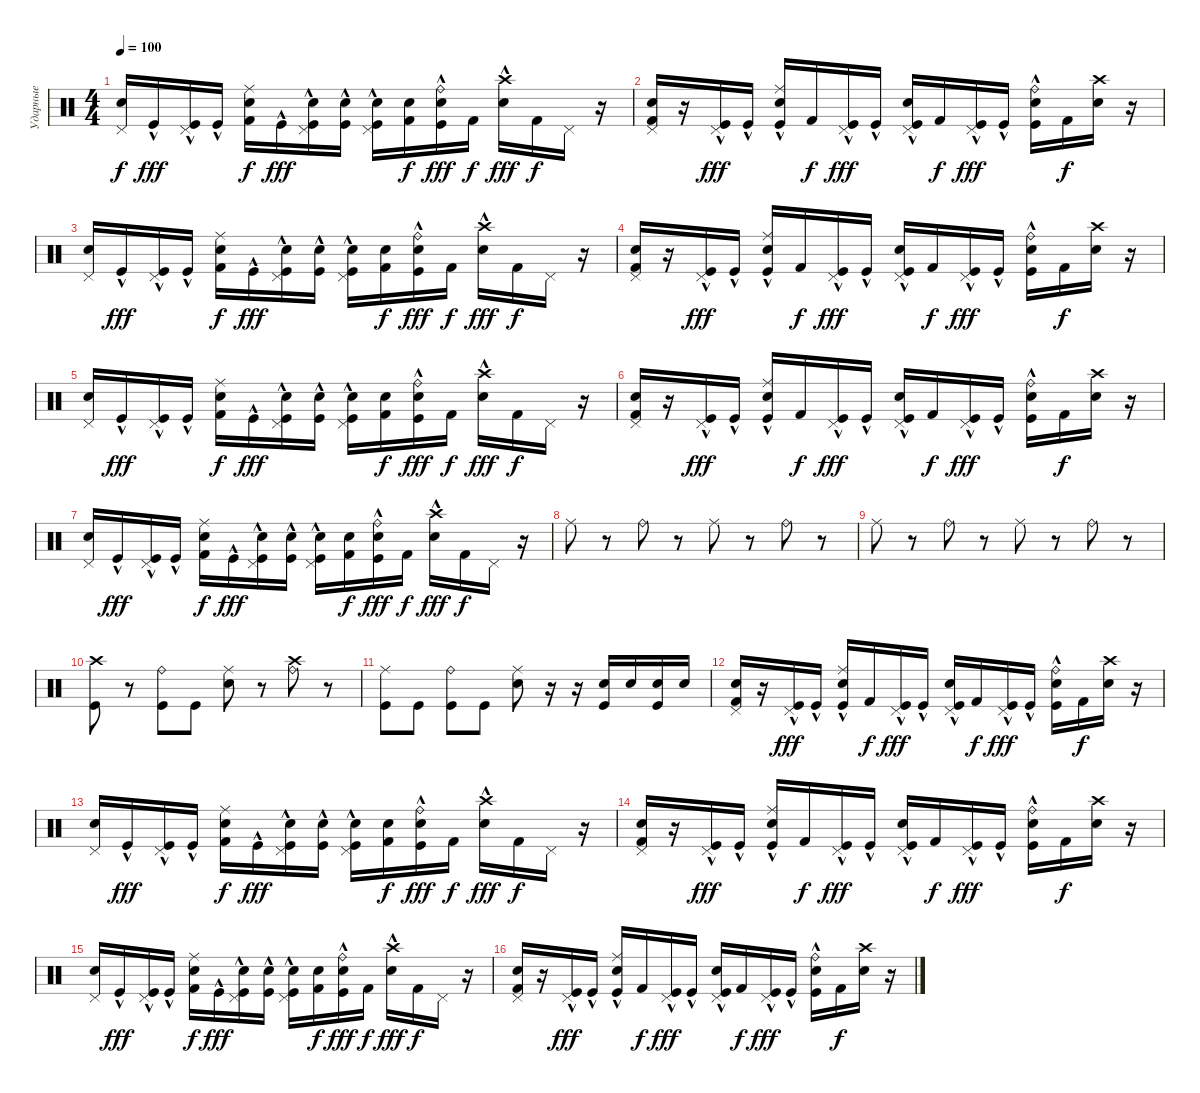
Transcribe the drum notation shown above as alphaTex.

\track ("Ударные" "Ударные") {instrument percussion}
\staff {score}
\articulation defaults
\ts (4 4)
\tempo 100
\clef neutral
\ks c
("Snare (hit) 2" "Pedal Hi-Hat (hit)").16{dy f} "Kick (hit)"{hac}.16{dy fff} ("Kick (hit)"{hac} "Pedal Hi-Hat (hit)").16 "Kick (hit)"{hac}.16 ("Electric Snare (hit)" "Kick (hit) 2" "Ride (middle)").16{dy f} "Kick (hit)"{hac}.16{dy fff} ("Snare (hit) 2" "Kick (hit)"{hac} "Pedal Hi-Hat (hit)").16 ("Snare (hit) 2" "Kick (hit)"{hac}).16 ("Snare (hit) 2" "Kick (hit)"{hac} "Pedal Hi-Hat (hit)").16 ("Snare (hit) 2" "Kick (hit) 2").16{dy f} ("Snare (hit) 2" "Kick (hit)"{hac} "Ride (bell)").16{dy fff} "Kick (hit) 2".16{dy f} ("Electric Snare (hit)"{hac} "Crash high (hit)").16{dy fff} "Kick (hit) 2".16{dy f} "Pedal Hi-Hat (hit)".16 r.16 |
("Snare (hit) 2" "Kick (hit) 2" "Pedal Hi-Hat (hit)").16 r.16 ("Kick (hit)"{hac} "Pedal Hi-Hat (hit)").16{dy fff} "Kick (hit)"{hac}.16 ("Electric Snare (hit)" "Kick (hit)"{hac} "Ride (middle)").16 "Kick (hit) 2".16{dy f} ("Kick (hit)"{hac} "Pedal Hi-Hat (hit)").16{dy fff} "Kick (hit)"{hac}.16 ("Snare (hit) 2" "Kick (hit)"{hac} "Pedal Hi-Hat (hit)").16 "Kick (hit) 2".16{dy f} ("Kick (hit)"{hac} "Pedal Hi-Hat (hit)").16{dy fff} "Kick (hit)"{hac}.16 ("Electric Snare (hit)" "Kick (hit)"{hac} "Ride (bell)").16 "Kick (hit) 2".16{dy f} ("Snare (hit) 2" "Crash high (hit)").16 r.16 |
("Snare (hit) 2" "Pedal Hi-Hat (hit)").16 "Kick (hit)"{hac}.16{dy fff} ("Kick (hit)"{hac} "Pedal Hi-Hat (hit)").16 "Kick (hit)"{hac}.16 ("Electric Snare (hit)" "Kick (hit) 2" "Ride (middle)").16{dy f} "Kick (hit)"{hac}.16{dy fff} ("Snare (hit) 2" "Kick (hit)"{hac} "Pedal Hi-Hat (hit)").16 ("Snare (hit) 2" "Kick (hit)"{hac}).16 ("Snare (hit) 2" "Kick (hit)"{hac} "Pedal Hi-Hat (hit)").16 ("Snare (hit) 2" "Kick (hit) 2").16{dy f} ("Snare (hit) 2" "Kick (hit)"{hac} "Ride (bell)").16{dy fff} "Kick (hit) 2".16{dy f} ("Electric Snare (hit)"{hac} "Crash high (hit)").16{dy fff} "Kick (hit) 2".16{dy f} "Pedal Hi-Hat (hit)".16 r.16 |
("Snare (hit) 2" "Kick (hit) 2" "Pedal Hi-Hat (hit)").16 r.16 ("Kick (hit)"{hac} "Pedal Hi-Hat (hit)").16{dy fff} "Kick (hit)"{hac}.16 ("Electric Snare (hit)" "Kick (hit)"{hac} "Ride (middle)").16 "Kick (hit) 2".16{dy f} ("Kick (hit)"{hac} "Pedal Hi-Hat (hit)").16{dy fff} "Kick (hit)"{hac}.16 ("Snare (hit) 2" "Kick (hit)"{hac} "Pedal Hi-Hat (hit)").16 "Kick (hit) 2".16{dy f} ("Kick (hit)"{hac} "Pedal Hi-Hat (hit)").16{dy fff} "Kick (hit)"{hac}.16 ("Electric Snare (hit)" "Kick (hit)"{hac} "Ride (bell)").16 "Kick (hit) 2".16{dy f} ("Snare (hit) 2" "Crash high (hit)").16 r.16 |
("Snare (hit) 2" "Pedal Hi-Hat (hit)").16 "Kick (hit)"{hac}.16{dy fff} ("Kick (hit)"{hac} "Pedal Hi-Hat (hit)").16 "Kick (hit)"{hac}.16 ("Electric Snare (hit)" "Kick (hit) 2" "Ride (middle)").16{dy f} "Kick (hit)"{hac}.16{dy fff} ("Snare (hit) 2" "Kick (hit)"{hac} "Pedal Hi-Hat (hit)").16 ("Snare (hit) 2" "Kick (hit)"{hac}).16 ("Snare (hit) 2" "Kick (hit)"{hac} "Pedal Hi-Hat (hit)").16 ("Snare (hit) 2" "Kick (hit) 2").16{dy f} ("Snare (hit) 2" "Kick (hit)"{hac} "Ride (bell)").16{dy fff} "Kick (hit) 2".16{dy f} ("Electric Snare (hit)"{hac} "Crash high (hit)").16{dy fff} "Kick (hit) 2".16{dy f} "Pedal Hi-Hat (hit)".16 r.16 |
("Snare (hit) 2" "Kick (hit) 2" "Pedal Hi-Hat (hit)").16 r.16 ("Kick (hit)"{hac} "Pedal Hi-Hat (hit)").16{dy fff} "Kick (hit)"{hac}.16 ("Electric Snare (hit)" "Kick (hit)"{hac} "Ride (middle)").16 "Kick (hit) 2".16{dy f} ("Kick (hit)"{hac} "Pedal Hi-Hat (hit)").16{dy fff} "Kick (hit)"{hac}.16 ("Snare (hit) 2" "Kick (hit)"{hac} "Pedal Hi-Hat (hit)").16 "Kick (hit) 2".16{dy f} ("Kick (hit)"{hac} "Pedal Hi-Hat (hit)").16{dy fff} "Kick (hit)"{hac}.16 ("Electric Snare (hit)" "Kick (hit)"{hac} "Ride (bell)").16 "Kick (hit) 2".16{dy f} ("Snare (hit) 2" "Crash high (hit)").16 r.16 |
("Snare (hit) 2" "Pedal Hi-Hat (hit)").16 "Kick (hit)"{hac}.16{dy fff} ("Kick (hit)"{hac} "Pedal Hi-Hat (hit)").16 "Kick (hit)"{hac}.16 ("Electric Snare (hit)" "Kick (hit) 2" "Ride (middle)").16{dy f} "Kick (hit)"{hac}.16{dy fff} ("Snare (hit) 2" "Kick (hit)"{hac} "Pedal Hi-Hat (hit)").16 ("Snare (hit) 2" "Kick (hit)"{hac}).16 ("Snare (hit) 2" "Kick (hit)"{hac} "Pedal Hi-Hat (hit)").16 ("Snare (hit) 2" "Kick (hit) 2").16{dy f} ("Snare (hit) 2" "Kick (hit)"{hac} "Ride (bell)").16{dy fff} "Kick (hit) 2".16{dy f} ("Electric Snare (hit)"{hac} "Crash high (hit)").16{dy fff} "Kick (hit) 2".16{dy f} "Pedal Hi-Hat (hit)".16 r.16 |
"Ride (middle)".8 r.8 "Ride (bell)".8 r.8 "Ride (middle)".8 r.8 "Ride (bell)".8 r.8 |
"Ride (middle)".8 r.8 "Ride (bell)".8 r.8 "Ride (middle)".8 r.8 "Ride (bell)".8 r.8 |
("Crash high (hit)" "Kick (hit)").8 r.8 ("Ride (bell)" "Kick (hit)").8 "Kick (hit)".8 ("Ride (middle)" "Electric Snare (hit)").8 r.8 ("Ride (bell)" "Crash high (hit)").8 r.8 |
("Ride (middle)" "Kick (hit)").8 "Kick (hit)".8 ("Ride (bell)" "Kick (hit)").8 "Kick (hit)".8 ("Ride (middle)" "Snare (hit) 2").8 r.16 r.16 ("Snare (hit) 2" "Kick (hit)").16 "Snare (hit) 2".16 ("Electric Snare (hit)" "Kick (hit)").16 "Electric Snare (hit)".16 |
("Snare (hit) 2" "Kick (hit) 2" "Pedal Hi-Hat (hit)").16 r.16 ("Kick (hit)"{hac} "Pedal Hi-Hat (hit)").16{dy fff} "Kick (hit)"{hac}.16 ("Electric Snare (hit)" "Kick (hit)"{hac} "Ride (middle)").16 "Kick (hit) 2".16{dy f} ("Kick (hit)"{hac} "Pedal Hi-Hat (hit)").16{dy fff} "Kick (hit)"{hac}.16 ("Snare (hit) 2" "Kick (hit)"{hac} "Pedal Hi-Hat (hit)").16 "Kick (hit) 2".16{dy f} ("Kick (hit)"{hac} "Pedal Hi-Hat (hit)").16{dy fff} "Kick (hit)"{hac}.16 ("Electric Snare (hit)" "Kick (hit)"{hac} "Ride (bell)").16 "Kick (hit) 2".16{dy f} ("Snare (hit) 2" "Crash high (hit)").16 r.16 |
("Snare (hit) 2" "Pedal Hi-Hat (hit)").16 "Kick (hit)"{hac}.16{dy fff} ("Kick (hit)"{hac} "Pedal Hi-Hat (hit)").16 "Kick (hit)"{hac}.16 ("Electric Snare (hit)" "Kick (hit) 2" "Ride (middle)").16{dy f} "Kick (hit)"{hac}.16{dy fff} ("Snare (hit) 2" "Kick (hit)"{hac} "Pedal Hi-Hat (hit)").16 ("Snare (hit) 2" "Kick (hit)"{hac}).16 ("Snare (hit) 2" "Kick (hit)"{hac} "Pedal Hi-Hat (hit)").16 ("Snare (hit) 2" "Kick (hit) 2").16{dy f} ("Snare (hit) 2" "Kick (hit)"{hac} "Ride (bell)").16{dy fff} "Kick (hit) 2".16{dy f} ("Electric Snare (hit)"{hac} "Crash high (hit)").16{dy fff} "Kick (hit) 2".16{dy f} "Pedal Hi-Hat (hit)".16 r.16 |
("Snare (hit) 2" "Kick (hit) 2" "Pedal Hi-Hat (hit)").16 r.16 ("Kick (hit)"{hac} "Pedal Hi-Hat (hit)").16{dy fff} "Kick (hit)"{hac}.16 ("Electric Snare (hit)" "Kick (hit)"{hac} "Ride (middle)").16 "Kick (hit) 2".16{dy f} ("Kick (hit)"{hac} "Pedal Hi-Hat (hit)").16{dy fff} "Kick (hit)"{hac}.16 ("Snare (hit) 2" "Kick (hit)"{hac} "Pedal Hi-Hat (hit)").16 "Kick (hit) 2".16{dy f} ("Kick (hit)"{hac} "Pedal Hi-Hat (hit)").16{dy fff} "Kick (hit)"{hac}.16 ("Electric Snare (hit)" "Kick (hit)"{hac} "Ride (bell)").16 "Kick (hit) 2".16{dy f} ("Snare (hit) 2" "Crash high (hit)").16 r.16 |
("Snare (hit) 2" "Pedal Hi-Hat (hit)").16 "Kick (hit)"{hac}.16{dy fff} ("Kick (hit)"{hac} "Pedal Hi-Hat (hit)").16 "Kick (hit)"{hac}.16 ("Electric Snare (hit)" "Kick (hit) 2" "Ride (middle)").16{dy f} "Kick (hit)"{hac}.16{dy fff} ("Snare (hit) 2" "Kick (hit)"{hac} "Pedal Hi-Hat (hit)").16 ("Snare (hit) 2" "Kick (hit)"{hac}).16 ("Snare (hit) 2" "Kick (hit)"{hac} "Pedal Hi-Hat (hit)").16 ("Snare (hit) 2" "Kick (hit) 2").16{dy f} ("Snare (hit) 2" "Kick (hit)"{hac} "Ride (bell)").16{dy fff} "Kick (hit) 2".16{dy f} ("Electric Snare (hit)"{hac} "Crash high (hit)").16{dy fff} "Kick (hit) 2".16{dy f} "Pedal Hi-Hat (hit)".16 r.16 |
("Snare (hit) 2" "Kick (hit) 2" "Pedal Hi-Hat (hit)").16 r.16 ("Kick (hit)"{hac} "Pedal Hi-Hat (hit)").16{dy fff} "Kick (hit)"{hac}.16 ("Electric Snare (hit)" "Kick (hit)"{hac} "Ride (middle)").16 "Kick (hit) 2".16{dy f} ("Kick (hit)"{hac} "Pedal Hi-Hat (hit)").16{dy fff} "Kick (hit)"{hac}.16 ("Snare (hit) 2" "Kick (hit)"{hac} "Pedal Hi-Hat (hit)").16 "Kick (hit) 2".16{dy f} ("Kick (hit)"{hac} "Pedal Hi-Hat (hit)").16{dy fff} "Kick (hit)"{hac}.16 ("Electric Snare (hit)" "Kick (hit)"{hac} "Ride (bell)").16 "Kick (hit) 2".16{dy f} ("Snare (hit) 2" "Crash high (hit)").16 r.16
